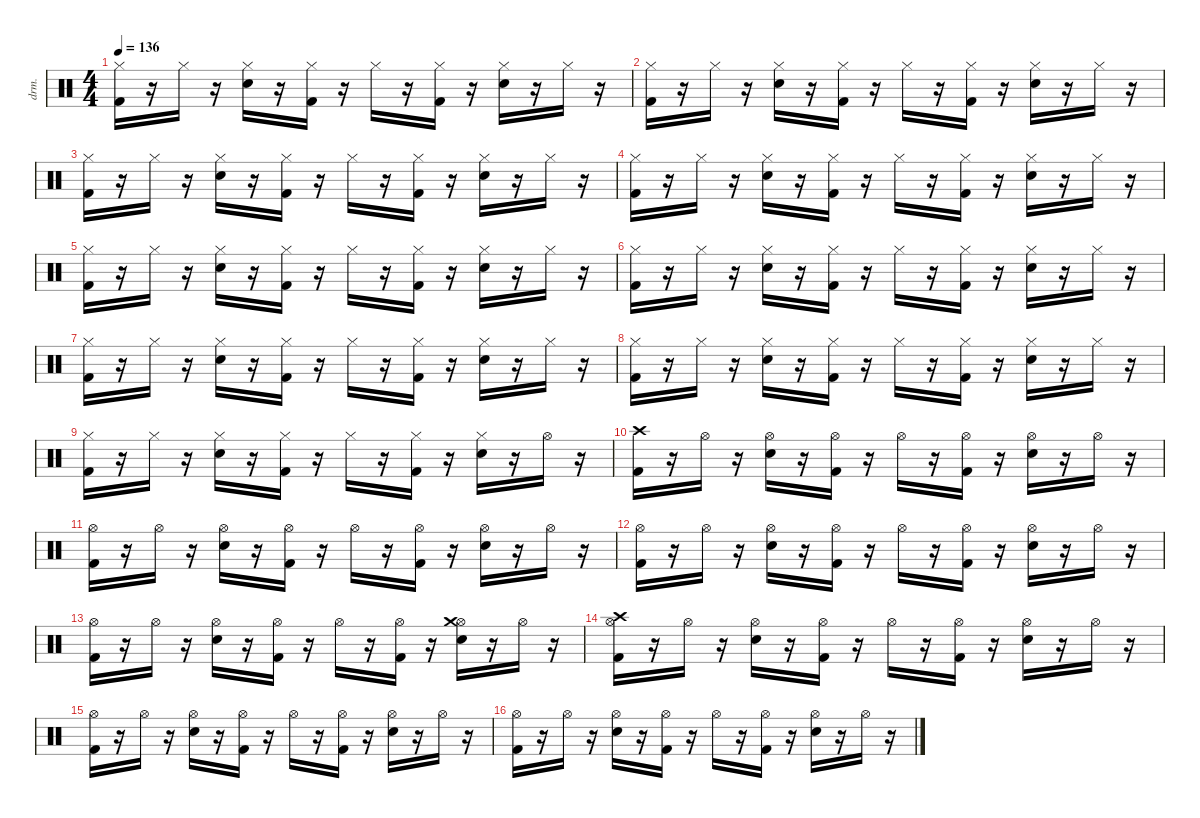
\defaultSystemsLayout 4
\hideDynamics
\bracketExtendMode nobrackets
\otherSystemsTrackNameOrientation horizontal
\track ("Drums" "drm.") {instrument percussion}
\staff {score}
\articulation defaults
\ts (4 4)
\tempo 136
\clef neutral
\ks c
("Kick (hit) 2" "Hi-Hat (closed)").16{dy f} r.16 "Hi-Hat (closed)".16 r.16 ("Snare (hit) 2" "Hi-Hat (closed)").16 r.16 ("Kick (hit) 2" "Hi-Hat (closed)").16 r.16 "Hi-Hat (closed)".16 r.16 ("Kick (hit) 2" "Hi-Hat (closed)").16 r.16 ("Snare (hit) 2" "Hi-Hat (closed)").16 r.16 "Hi-Hat (closed)".16 r.16 |
("Kick (hit) 2" "Hi-Hat (closed)").16 r.16 "Hi-Hat (closed)".16 r.16 ("Snare (hit) 2" "Hi-Hat (closed)").16 r.16 ("Kick (hit) 2" "Hi-Hat (closed)").16 r.16 "Hi-Hat (closed)".16 r.16 ("Kick (hit) 2" "Hi-Hat (closed)").16 r.16 ("Snare (hit) 2" "Hi-Hat (closed)").16 r.16 "Hi-Hat (closed)".16 r.16 |
("Kick (hit) 2" "Hi-Hat (closed)").16 r.16 "Hi-Hat (closed)".16 r.16 ("Snare (hit) 2" "Hi-Hat (closed)").16 r.16 ("Kick (hit) 2" "Hi-Hat (closed)").16 r.16 "Hi-Hat (closed)".16 r.16 ("Kick (hit) 2" "Hi-Hat (closed)").16 r.16 ("Snare (hit) 2" "Hi-Hat (closed)").16 r.16 "Hi-Hat (closed)".16 r.16 |
("Kick (hit) 2" "Hi-Hat (closed)").16 r.16 "Hi-Hat (closed)".16 r.16 ("Snare (hit) 2" "Hi-Hat (closed)").16 r.16 ("Kick (hit) 2" "Hi-Hat (closed)").16 r.16 "Hi-Hat (closed)".16 r.16 ("Kick (hit) 2" "Hi-Hat (closed)").16 r.16 ("Snare (hit) 2" "Hi-Hat (closed)").16 r.16 "Hi-Hat (closed)".16 r.16 |
("Kick (hit) 2" "Hi-Hat (closed)").16 r.16 "Hi-Hat (closed)".16 r.16 ("Snare (hit) 2" "Hi-Hat (closed)").16 r.16 ("Kick (hit) 2" "Hi-Hat (closed)").16 r.16 "Hi-Hat (closed)".16 r.16 ("Kick (hit) 2" "Hi-Hat (closed)").16 r.16 ("Snare (hit) 2" "Hi-Hat (closed)").16 r.16 "Hi-Hat (closed)".16 r.16 |
("Kick (hit) 2" "Hi-Hat (closed)").16 r.16 "Hi-Hat (closed)".16 r.16 ("Snare (hit) 2" "Hi-Hat (closed)").16 r.16 ("Kick (hit) 2" "Hi-Hat (closed)").16 r.16 "Hi-Hat (closed)".16 r.16 ("Kick (hit) 2" "Hi-Hat (closed)").16 r.16 ("Snare (hit) 2" "Hi-Hat (closed)").16 r.16 "Hi-Hat (closed)".16 r.16 |
("Kick (hit) 2" "Hi-Hat (closed)").16 r.16 "Hi-Hat (closed)".16 r.16 ("Snare (hit) 2" "Hi-Hat (closed)").16 r.16 ("Kick (hit) 2" "Hi-Hat (closed)").16 r.16 "Hi-Hat (closed)".16 r.16 ("Kick (hit) 2" "Hi-Hat (closed)").16 r.16 ("Snare (hit) 2" "Hi-Hat (closed)").16 r.16 "Hi-Hat (closed)".16 r.16 |
("Kick (hit) 2" "Hi-Hat (closed)").16 r.16 "Hi-Hat (closed)".16 r.16 ("Snare (hit) 2" "Hi-Hat (closed)").16 r.16 ("Kick (hit) 2" "Hi-Hat (closed)").16 r.16 "Hi-Hat (closed)".16 r.16 ("Kick (hit) 2" "Hi-Hat (closed)").16 r.16 ("Snare (hit) 2" "Hi-Hat (closed)").16 r.16 "Hi-Hat (closed)".16 r.16 |
("Kick (hit) 2" "Hi-Hat (closed)").16 r.16 "Hi-Hat (closed)".16 r.16 ("Snare (hit) 2" "Hi-Hat (closed)").16 r.16 ("Kick (hit) 2" "Hi-Hat (closed)").16 r.16 "Hi-Hat (closed)".16 r.16 ("Kick (hit) 2" "Hi-Hat (closed)").16 r.16 ("Snare (hit) 2" "Hi-Hat (closed)").16 r.16 "Hi-Hat (open)".16 r.16 |
("Kick (hit) 2" "Crash high (hit)").16 r.16 "Hi-Hat (open)".16 r.16 ("Snare (hit) 2" "Hi-Hat (open)").16 r.16 ("Kick (hit) 2" "Hi-Hat (open)").16 r.16 "Hi-Hat (open)".16 r.16 ("Kick (hit) 2" "Hi-Hat (open)").16 r.16 ("Snare (hit) 2" "Hi-Hat (open)").16 r.16 "Hi-Hat (open)".16 r.16 |
("Kick (hit) 2" "Hi-Hat (open)").16 r.16 "Hi-Hat (open)".16 r.16 ("Snare (hit) 2" "Hi-Hat (open)").16 r.16 ("Kick (hit) 2" "Hi-Hat (open)").16 r.16 "Hi-Hat (open)".16 r.16 ("Kick (hit) 2" "Hi-Hat (open)").16 r.16 ("Snare (hit) 2" "Hi-Hat (open)").16 r.16 "Hi-Hat (open)".16 r.16 |
("Kick (hit) 2" "Hi-Hat (open)").16 r.16 "Hi-Hat (open)".16 r.16 ("Snare (hit) 2" "Hi-Hat (open)").16 r.16 ("Kick (hit) 2" "Hi-Hat (open)").16 r.16 "Hi-Hat (open)".16 r.16 ("Kick (hit) 2" "Hi-Hat (open)").16 r.16 ("Snare (hit) 2" "Hi-Hat (open)").16 r.16 "Hi-Hat (open)".16 r.16 |
("Kick (hit) 2" "Hi-Hat (open)").16 r.16 "Hi-Hat (open)".16 r.16 ("Snare (hit) 2" "Hi-Hat (open)").16 r.16 ("Kick (hit) 2" "Hi-Hat (open)").16 r.16 "Hi-Hat (open)".16 r.16 ("Kick (hit) 2" "Hi-Hat (open)").16 r.16 ("Snare (hit) 2" "Hi-Hat (open)" "Crash medium (hit)").16 r.16 "Hi-Hat (open)".16 r.16 |
("Kick (hit) 2" "Hi-Hat (open)" "Crash high (hit)").16 r.16 "Hi-Hat (open)".16 r.16 ("Snare (hit) 2" "Hi-Hat (open)").16 r.16 ("Kick (hit) 2" "Hi-Hat (open)").16 r.16 "Hi-Hat (open)".16 r.16 ("Kick (hit) 2" "Hi-Hat (open)").16 r.16 ("Snare (hit) 2" "Hi-Hat (open)").16 r.16 "Hi-Hat (open)".16 r.16 |
("Kick (hit) 2" "Hi-Hat (open)").16 r.16 "Hi-Hat (open)".16 r.16 ("Snare (hit) 2" "Hi-Hat (open)").16 r.16 ("Kick (hit) 2" "Hi-Hat (open)").16 r.16 "Hi-Hat (open)".16 r.16 ("Kick (hit) 2" "Hi-Hat (open)").16 r.16 ("Snare (hit) 2" "Hi-Hat (open)").16 r.16 "Hi-Hat (open)".16 r.16 |
("Kick (hit) 2" "Hi-Hat (open)").16 r.16 "Hi-Hat (open)".16 r.16 ("Snare (hit) 2" "Hi-Hat (open)").16 r.16 ("Kick (hit) 2" "Hi-Hat (open)").16 r.16 "Hi-Hat (open)".16 r.16 ("Kick (hit) 2" "Hi-Hat (open)").16 r.16 ("Snare (hit) 2" "Hi-Hat (open)").16 r.16 "Hi-Hat (open)".16 r.16
